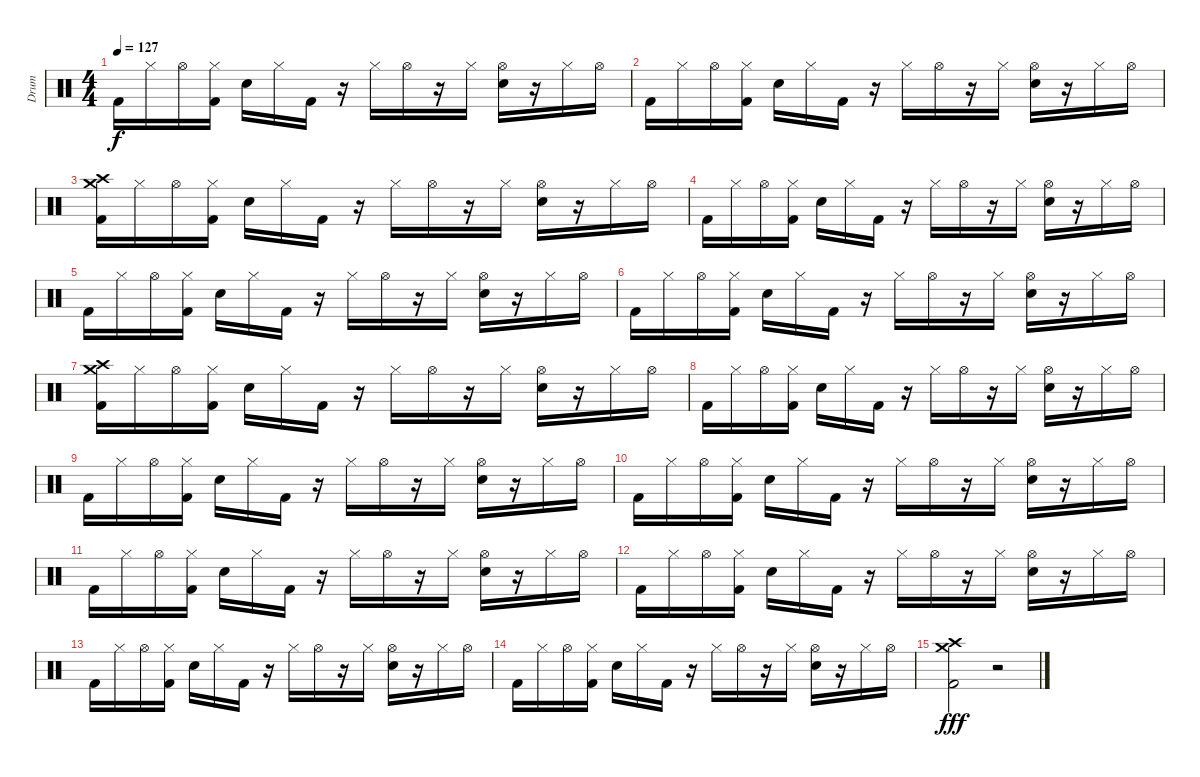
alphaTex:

\track ("Drum" "Drum") {instrument percussion}
\staff {score}
\articulation defaults
\ts (4 4)
\tempo 127
\clef neutral
\ks c "Kick (hit) 2".16{dy f} "Hi-Hat (closed)".16 "Hi-Hat (open)".16
("Hi-Hat (closed)" "Kick (hit) 2").16 "Electric Snare (hit)".16 "Hi-Hat (closed)".16 "Kick (hit) 2".16 r.16 "Hi-Hat (closed)".16 "Hi-Hat (open)".16 r.16 "Hi-Hat (closed)".16 ("Hi-Hat (open)" "Electric Snare (hit)").16 r.16 "Hi-Hat (closed)".16 "Hi-Hat (open)".16 |
"Kick (hit) 2".16 "Hi-Hat (closed)".16 "Hi-Hat (open)".16 ("Hi-Hat (closed)" "Kick (hit) 2").16 "Electric Snare (hit)".16 "Hi-Hat (closed)".16 "Kick (hit) 2".16 r.16 "Hi-Hat (closed)".16 "Hi-Hat (open)".16 r.16 "Hi-Hat (closed)".16 ("Hi-Hat (open)" "Electric Snare (hit)").16 r.16 "Hi-Hat (closed)".16 "Hi-Hat (open)".16 |
("Crash medium (hit)" "Crash high (hit)" "Kick (hit) 2").16 "Hi-Hat (closed)".16 "Hi-Hat (open)".16 ("Hi-Hat (closed)" "Kick (hit) 2").16 "Electric Snare (hit)".16 "Hi-Hat (closed)".16 "Kick (hit) 2".16 r.16 "Hi-Hat (closed)".16 "Hi-Hat (open)".16 r.16 "Hi-Hat (closed)".16 ("Hi-Hat (open)" "Electric Snare (hit)").16 r.16 "Hi-Hat (closed)".16 "Hi-Hat (open)".16 |
"Kick (hit) 2".16 "Hi-Hat (closed)".16 "Hi-Hat (open)".16 ("Hi-Hat (closed)" "Kick (hit) 2").16 "Electric Snare (hit)".16 "Hi-Hat (closed)".16 "Kick (hit) 2".16 r.16 "Hi-Hat (closed)".16 "Hi-Hat (open)".16 r.16 "Hi-Hat (closed)".16 ("Hi-Hat (open)" "Electric Snare (hit)").16 r.16 "Hi-Hat (closed)".16 "Hi-Hat (open)".16 |
"Kick (hit) 2".16 "Hi-Hat (closed)".16 "Hi-Hat (open)".16 ("Hi-Hat (closed)" "Kick (hit) 2").16 "Electric Snare (hit)".16 "Hi-Hat (closed)".16 "Kick (hit) 2".16 r.16 "Hi-Hat (closed)".16 "Hi-Hat (open)".16 r.16 "Hi-Hat (closed)".16 ("Hi-Hat (open)" "Electric Snare (hit)").16 r.16 "Hi-Hat (closed)".16 "Hi-Hat (open)".16 |
"Kick (hit) 2".16 "Hi-Hat (closed)".16 "Hi-Hat (open)".16 ("Hi-Hat (closed)" "Kick (hit) 2").16 "Electric Snare (hit)".16 "Hi-Hat (closed)".16 "Kick (hit) 2".16 r.16 "Hi-Hat (closed)".16 "Hi-Hat (open)".16 r.16 "Hi-Hat (closed)".16 ("Hi-Hat (open)" "Electric Snare (hit)").16 r.16 "Hi-Hat (closed)".16 "Hi-Hat (open)".16 |
("Crash high (hit)" "Crash medium (hit)" "Kick (hit) 2").16 "Hi-Hat (closed)".16 "Hi-Hat (open)".16 ("Hi-Hat (closed)" "Kick (hit) 2").16 "Electric Snare (hit)".16 "Hi-Hat (closed)".16 "Kick (hit) 2".16 r.16 "Hi-Hat (closed)".16 "Hi-Hat (open)".16 r.16 "Hi-Hat (closed)".16 ("Hi-Hat (open)" "Electric Snare (hit)").16 r.16 "Hi-Hat (closed)".16 "Hi-Hat (open)".16 |
"Kick (hit) 2".16 "Hi-Hat (closed)".16 "Hi-Hat (open)".16 ("Hi-Hat (closed)" "Kick (hit) 2").16 "Electric Snare (hit)".16 "Hi-Hat (closed)".16 "Kick (hit) 2".16 r.16 "Hi-Hat (closed)".16 "Hi-Hat (open)".16 r.16 "Hi-Hat (closed)".16 ("Hi-Hat (open)" "Electric Snare (hit)").16 r.16 "Hi-Hat (closed)".16 "Hi-Hat (open)".16 |
"Kick (hit) 2".16 "Hi-Hat (closed)".16 "Hi-Hat (open)".16 ("Hi-Hat (closed)" "Kick (hit) 2").16 "Electric Snare (hit)".16 "Hi-Hat (closed)".16 "Kick (hit) 2".16 r.16 "Hi-Hat (closed)".16 "Hi-Hat (open)".16 r.16 "Hi-Hat (closed)".16 ("Hi-Hat (open)" "Electric Snare (hit)").16 r.16 "Hi-Hat (closed)".16 "Hi-Hat (open)".16 |
"Kick (hit) 2".16 "Hi-Hat (closed)".16 "Hi-Hat (open)".16 ("Hi-Hat (closed)" "Kick (hit) 2").16 "Electric Snare (hit)".16 "Hi-Hat (closed)".16 "Kick (hit) 2".16 r.16 "Hi-Hat (closed)".16 "Hi-Hat (open)".16 r.16 "Hi-Hat (closed)".16 ("Hi-Hat (open)" "Electric Snare (hit)").16 r.16 "Hi-Hat (closed)".16 "Hi-Hat (open)".16 |
"Kick (hit) 2".16 "Hi-Hat (closed)".16 "Hi-Hat (open)".16 ("Hi-Hat (closed)" "Kick (hit) 2").16 "Electric Snare (hit)".16 "Hi-Hat (closed)".16 "Kick (hit) 2".16 r.16 "Hi-Hat (closed)".16 "Hi-Hat (open)".16 r.16 "Hi-Hat (closed)".16 ("Hi-Hat (open)" "Electric Snare (hit)").16 r.16 "Hi-Hat (closed)".16 "Hi-Hat (open)".16 |
"Kick (hit) 2".16 "Hi-Hat (closed)".16 "Hi-Hat (open)".16 ("Hi-Hat (closed)" "Kick (hit) 2").16 "Electric Snare (hit)".16 "Hi-Hat (closed)".16 "Kick (hit) 2".16 r.16 "Hi-Hat (closed)".16 "Hi-Hat (open)".16 r.16 "Hi-Hat (closed)".16 ("Hi-Hat (open)" "Electric Snare (hit)").16 r.16 "Hi-Hat (closed)".16 "Hi-Hat (open)".16 |
"Kick (hit) 2".16 "Hi-Hat (closed)".16 "Hi-Hat (open)".16 ("Hi-Hat (closed)" "Kick (hit) 2").16 "Electric Snare (hit)".16 "Hi-Hat (closed)".16 "Kick (hit) 2".16 r.16 "Hi-Hat (closed)".16 "Hi-Hat (open)".16 r.16 "Hi-Hat (closed)".16 ("Hi-Hat (open)" "Electric Snare (hit)").16 r.16 "Hi-Hat (closed)".16 "Hi-Hat (open)".16 |
"Kick (hit) 2".16 "Hi-Hat (closed)".16 "Hi-Hat (open)".16 ("Hi-Hat (closed)" "Kick (hit) 2").16 "Electric Snare (hit)".16 "Hi-Hat (closed)".16 "Kick (hit) 2".16 r.16 "Hi-Hat (closed)".16 "Hi-Hat (open)".16 r.16 "Hi-Hat (closed)".16 ("Hi-Hat (open)" "Electric Snare (hit)").16 r.16 "Hi-Hat (closed)".16 "Hi-Hat (open)".16 |
("Crash high (hit)" "Crash medium (hit)" "Kick (hit) 2").2{dy fff} r.2
